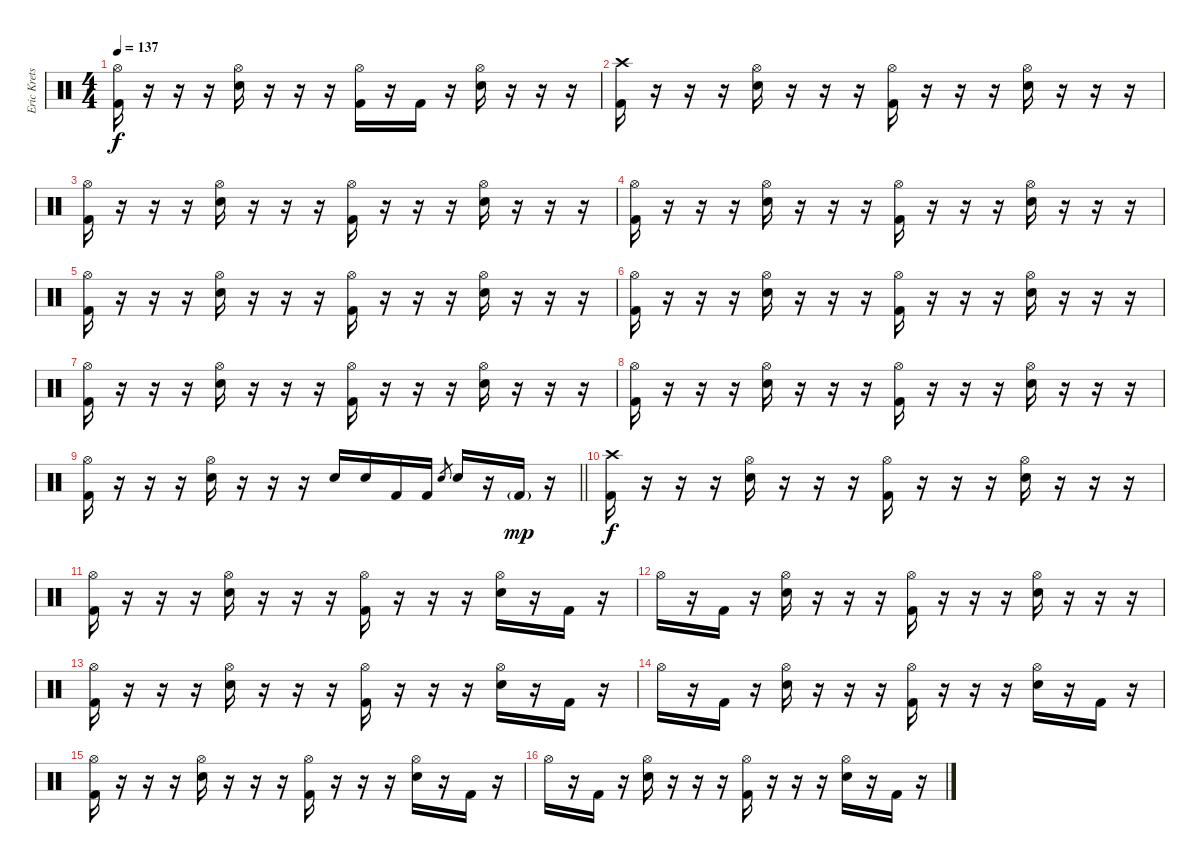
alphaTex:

\track ("Eric Krets" "Eric Krets") {instrument percussion}
\staff {score}
\articulation defaults
\ts (4 4)
\tempo 137
\clef neutral
\ks c
("Hi-Hat (open)" "Kick (hit) 2").16{dy f} r.16 r.16 r.16 ("Hi-Hat (open)" "Electric Snare (hit)").16 r.16 r.16 r.16 ("Hi-Hat (open)" "Kick (hit) 2").16 r.16 "Kick (hit) 2".16 r.16 ("Hi-Hat (open)" "Electric Snare (hit)").16 r.16 r.16 r.16 |
("Crash high (hit)" "Kick (hit) 2").16 r.16 r.16 r.16 ("Hi-Hat (open)" "Electric Snare (hit)").16 r.16 r.16 r.16 ("Hi-Hat (open)" "Kick (hit) 2").16 r.16 r.16 r.16 ("Hi-Hat (open)" "Electric Snare (hit)").16 r.16 r.16 r.16 |
("Hi-Hat (open)" "Kick (hit) 2").16 r.16 r.16 r.16 ("Hi-Hat (open)" "Electric Snare (hit)").16 r.16 r.16 r.16 ("Hi-Hat (open)" "Kick (hit) 2").16 r.16 r.16 r.16 ("Hi-Hat (open)" "Electric Snare (hit)").16 r.16 r.16 r.16 |
("Hi-Hat (open)" "Kick (hit) 2").16 r.16 r.16 r.16 ("Hi-Hat (open)" "Electric Snare (hit)").16 r.16 r.16 r.16 ("Hi-Hat (open)" "Kick (hit) 2").16 r.16 r.16 r.16 ("Hi-Hat (open)" "Electric Snare (hit)").16 r.16 r.16 r.16 |
("Hi-Hat (open)" "Kick (hit) 2").16 r.16 r.16 r.16 ("Hi-Hat (open)" "Electric Snare (hit)").16 r.16 r.16 r.16 ("Hi-Hat (open)" "Kick (hit) 2").16 r.16 r.16 r.16 ("Hi-Hat (open)" "Electric Snare (hit)").16 r.16 r.16 r.16 |
("Hi-Hat (open)" "Kick (hit) 2").16 r.16 r.16 r.16 ("Hi-Hat (open)" "Electric Snare (hit)").16 r.16 r.16 r.16 ("Hi-Hat (open)" "Kick (hit) 2").16 r.16 r.16 r.16 ("Hi-Hat (open)" "Electric Snare (hit)").16 r.16 r.16 r.16 |
("Hi-Hat (open)" "Kick (hit) 2").16 r.16 r.16 r.16 ("Hi-Hat (open)" "Electric Snare (hit)").16 r.16 r.16 r.16 ("Hi-Hat (open)" "Kick (hit) 2").16 r.16 r.16 r.16 ("Hi-Hat (open)" "Electric Snare (hit)").16 r.16 r.16 r.16 |
("Hi-Hat (open)" "Kick (hit) 2").16 r.16 r.16 r.16 ("Hi-Hat (open)" "Electric Snare (hit)").16 r.16 r.16 r.16 ("Hi-Hat (open)" "Kick (hit) 2").16 r.16 r.16 r.16 ("Hi-Hat (open)" "Electric Snare (hit)").16 r.16 r.16 r.16 |
\barLineRight lightlight
("Hi-Hat (open)" "Kick (hit) 2").16 r.16 r.16 r.16 ("Hi-Hat (open)" "Electric Snare (hit)").16 r.16 r.16 r.16 "Electric Snare (hit)".16 "Electric Snare (hit)".16 "Kick (hit) 2".16 "Kick (hit) 2".16 "Electric Snare (hit)".8{gr} "Electric Snare (hit)".16 r.16 "Kick (hit) 2"{g}.16{dy mp} r.16 |
("Crash high (hit)" "Kick (hit) 2").16{dy f} r.16 r.16 r.16 ("Hi-Hat (open)" "Electric Snare (hit)").16 r.16 r.16 r.16 ("Hi-Hat (open)" "Kick (hit) 2").16 r.16 r.16 r.16 ("Hi-Hat (open)" "Electric Snare (hit)").16 r.16 r.16 r.16 |
("Hi-Hat (open)" "Kick (hit) 2").16 r.16 r.16 r.16 ("Hi-Hat (open)" "Electric Snare (hit)").16 r.16 r.16 r.16 ("Hi-Hat (open)" "Kick (hit) 2").16 r.16 r.16 r.16 ("Hi-Hat (open)" "Electric Snare (hit)").16 r.16 "Kick (hit) 2".16 r.16 |
"Hi-Hat (open)".16 r.16 "Kick (hit) 2".16 r.16 ("Hi-Hat (open)" "Electric Snare (hit)").16 r.16 r.16 r.16 ("Hi-Hat (open)" "Kick (hit) 2").16 r.16 r.16 r.16 ("Hi-Hat (open)" "Electric Snare (hit)").16 r.16 r.16 r.16 |
("Hi-Hat (open)" "Kick (hit) 2").16 r.16 r.16 r.16 ("Hi-Hat (open)" "Electric Snare (hit)").16 r.16 r.16 r.16 ("Hi-Hat (open)" "Kick (hit) 2").16 r.16 r.16 r.16 ("Hi-Hat (open)" "Electric Snare (hit)").16 r.16 "Kick (hit) 2".16 r.16 |
"Hi-Hat (open)".16 r.16 "Kick (hit) 2".16 r.16 ("Hi-Hat (open)" "Electric Snare (hit)").16 r.16 r.16 r.16 ("Hi-Hat (open)" "Kick (hit) 2").16 r.16 r.16 r.16 ("Hi-Hat (open)" "Electric Snare (hit)").16 r.16 "Kick (hit) 2".16 r.16 |
("Hi-Hat (open)" "Kick (hit) 2").16 r.16 r.16 r.16 ("Hi-Hat (open)" "Electric Snare (hit)").16 r.16 r.16 r.16 ("Hi-Hat (open)" "Kick (hit) 2").16 r.16 r.16 r.16 ("Hi-Hat (open)" "Electric Snare (hit)").16 r.16 "Kick (hit) 2".16 r.16 |
"Hi-Hat (open)".16 r.16 "Kick (hit) 2".16 r.16 ("Hi-Hat (open)" "Electric Snare (hit)").16 r.16 r.16 r.16 ("Hi-Hat (open)" "Kick (hit) 2").16 r.16 r.16 r.16 ("Hi-Hat (open)" "Electric Snare (hit)").16 r.16 "Kick (hit) 2".16 r.16
